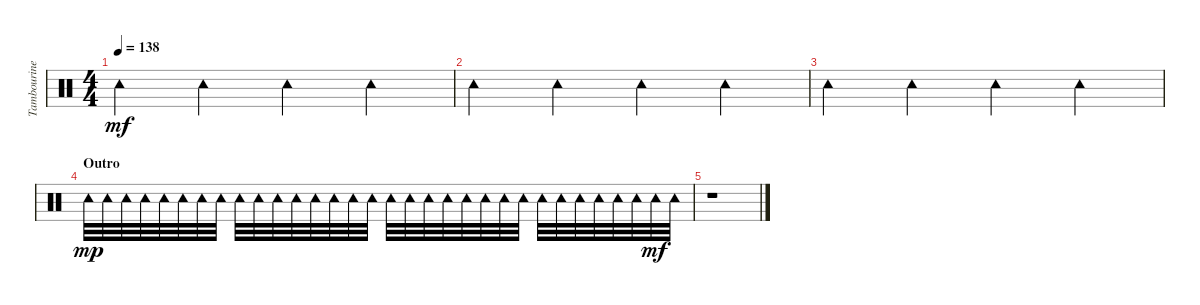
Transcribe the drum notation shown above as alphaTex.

\track ("Tambourine" "Tambourine") {instrument percussion}
\staff {score}
\articulation defaults
\ts (4 4)
\tempo 138
\clef neutral
\ks c "Tambourine (hit)".4{dy mf} "Tambourine (hit)".4 "Tambourine (hit)".4 "Tambourine (hit)".4
|
"Tambourine (hit)".4 "Tambourine (hit)".4 "Tambourine (hit)".4 "Tambourine (hit)".4 |
"Tambourine (hit)".4 "Tambourine (hit)".4 "Tambourine (hit)".4 "Tambourine (hit)".4 |
\section ("" "Outro")
"Tambourine (hit)".32{dy mp} "Tambourine (hit)".32 "Tambourine (hit)".32 "Tambourine (hit)".32 "Tambourine (hit)".32 "Tambourine (hit)".32 "Tambourine (hit)".32 "Tambourine (hit)".32 "Tambourine (hit)".32 "Tambourine (hit)".32 "Tambourine (hit)".32 "Tambourine (hit)".32 "Tambourine (hit)".32 "Tambourine (hit)".32 "Tambourine (hit)".32 "Tambourine (hit)".32 "Tambourine (hit)".32 "Tambourine (hit)".32 "Tambourine (hit)".32 "Tambourine (hit)".32 "Tambourine (hit)".32 "Tambourine (hit)".32 "Tambourine (hit)".32 "Tambourine (hit)".32 "Tambourine (hit)".32 "Tambourine (hit)".32 "Tambourine (hit)".32 "Tambourine (hit)".32 "Tambourine (hit)".32 "Tambourine (hit)".32 "Tambourine (hit)".32{dy mf} "Tambourine (hit)".32 |
r.1
